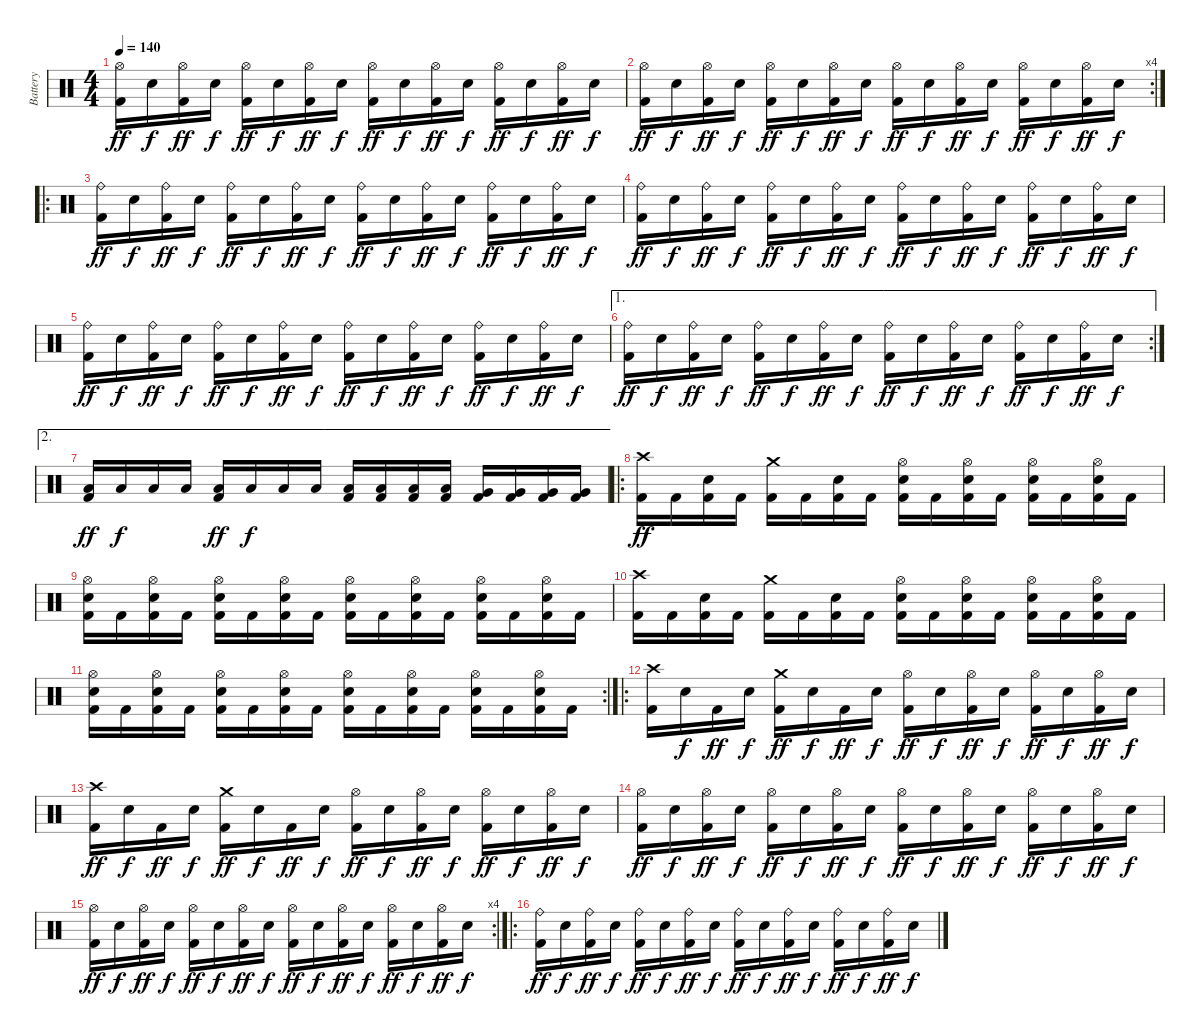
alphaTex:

\track ("Battery" "Battery") {instrument percussion}
\staff {score}
\articulation defaults
\ts (4 4)
\tempo 140
\clef neutral
\ks c
("Hi-Hat (open)" "Kick (hit) 2").16{dy ff} "Snare (hit) 2".16{dy f} ("Hi-Hat (open)" "Kick (hit) 2").16{dy ff} "Snare (hit) 2".16{dy f} ("Hi-Hat (open)" "Kick (hit) 2").16{dy ff} "Snare (hit) 2".16{dy f} ("Hi-Hat (open)" "Kick (hit) 2").16{dy ff} "Snare (hit) 2".16{dy f} ("Hi-Hat (open)" "Kick (hit) 2").16{dy ff} "Snare (hit) 2".16{dy f} ("Hi-Hat (open)" "Kick (hit) 2").16{dy ff} "Snare (hit) 2".16{dy f} ("Hi-Hat (open)" "Kick (hit) 2").16{dy ff} "Snare (hit) 2".16{dy f} ("Hi-Hat (open)" "Kick (hit) 2").16{dy ff} "Snare (hit) 2".16{dy f} |
\rc 4
("Hi-Hat (open)" "Kick (hit) 2").16{dy ff} "Snare (hit) 2".16{dy f} ("Hi-Hat (open)" "Kick (hit) 2").16{dy ff} "Snare (hit) 2".16{dy f} ("Hi-Hat (open)" "Kick (hit) 2").16{dy ff} "Snare (hit) 2".16{dy f} ("Hi-Hat (open)" "Kick (hit) 2").16{dy ff} "Snare (hit) 2".16{dy f} ("Hi-Hat (open)" "Kick (hit) 2").16{dy ff} "Snare (hit) 2".16{dy f} ("Hi-Hat (open)" "Kick (hit) 2").16{dy ff} "Snare (hit) 2".16{dy f} ("Hi-Hat (open)" "Kick (hit) 2").16{dy ff} "Snare (hit) 2".16{dy f} ("Hi-Hat (open)" "Kick (hit) 2").16{dy ff} "Snare (hit) 2".16{dy f} |
\ro
("Ride (bell)" "Kick (hit) 2").16{dy ff} "Snare (hit) 2".16{dy f} ("Ride (bell)" "Kick (hit) 2").16{dy ff} "Snare (hit) 2".16{dy f} ("Ride (bell)" "Kick (hit) 2").16{dy ff} "Snare (hit) 2".16{dy f} ("Ride (bell)" "Kick (hit) 2").16{dy ff} "Snare (hit) 2".16{dy f} ("Ride (bell)" "Kick (hit) 2").16{dy ff} "Snare (hit) 2".16{dy f} ("Ride (bell)" "Kick (hit) 2").16{dy ff} "Snare (hit) 2".16{dy f} ("Ride (bell)" "Kick (hit) 2").16{dy ff} "Snare (hit) 2".16{dy f} ("Ride (bell)" "Kick (hit) 2").16{dy ff} "Snare (hit) 2".16{dy f} |
("Ride (bell)" "Kick (hit) 2").16{dy ff} "Snare (hit) 2".16{dy f} ("Ride (bell)" "Kick (hit) 2").16{dy ff} "Snare (hit) 2".16{dy f} ("Ride (bell)" "Kick (hit) 2").16{dy ff} "Snare (hit) 2".16{dy f} ("Ride (bell)" "Kick (hit) 2").16{dy ff} "Snare (hit) 2".16{dy f} ("Ride (bell)" "Kick (hit) 2").16{dy ff} "Snare (hit) 2".16{dy f} ("Ride (bell)" "Kick (hit) 2").16{dy ff} "Snare (hit) 2".16{dy f} ("Ride (bell)" "Kick (hit) 2").16{dy ff} "Snare (hit) 2".16{dy f} ("Ride (bell)" "Kick (hit) 2").16{dy ff} "Snare (hit) 2".16{dy f} |
("Ride (bell)" "Kick (hit) 2").16{dy ff} "Snare (hit) 2".16{dy f} ("Ride (bell)" "Kick (hit) 2").16{dy ff} "Snare (hit) 2".16{dy f} ("Ride (bell)" "Kick (hit) 2").16{dy ff} "Snare (hit) 2".16{dy f} ("Ride (bell)" "Kick (hit) 2").16{dy ff} "Snare (hit) 2".16{dy f} ("Ride (bell)" "Kick (hit) 2").16{dy ff} "Snare (hit) 2".16{dy f} ("Ride (bell)" "Kick (hit) 2").16{dy ff} "Snare (hit) 2".16{dy f} ("Ride (bell)" "Kick (hit) 2").16{dy ff} "Snare (hit) 2".16{dy f} ("Ride (bell)" "Kick (hit) 2").16{dy ff} "Snare (hit) 2".16{dy f} |
\ae 1
\rc 2
("Ride (bell)" "Kick (hit) 2").16{dy ff} "Snare (hit) 2".16{dy f} ("Ride (bell)" "Kick (hit) 2").16{dy ff} "Snare (hit) 2".16{dy f} ("Ride (bell)" "Kick (hit) 2").16{dy ff} "Snare (hit) 2".16{dy f} ("Ride (bell)" "Kick (hit) 2").16{dy ff} "Snare (hit) 2".16{dy f} ("Ride (bell)" "Kick (hit) 2").16{dy ff} "Snare (hit) 2".16{dy f} ("Ride (bell)" "Kick (hit) 2").16{dy ff} "Snare (hit) 2".16{dy f} ("Ride (bell)" "Kick (hit) 2").16{dy ff} "Snare (hit) 2".16{dy f} ("Ride (bell)" "Kick (hit) 2").16{dy ff} "Snare (hit) 2".16{dy f} |
\ae 2
("Low Tom (hit)" "Kick (hit) 2").16{dy ff} "Low Tom (hit)".16{dy f} "Low Tom (hit)".16 "Low Tom (hit)".16 ("Low Tom (hit)" "Kick (hit) 2").16{dy ff} "Low Tom (hit)".16{dy f} "Low Tom (hit)".16 "Low Tom (hit)".16 ("Low Tom (hit)" "Kick (hit) 2").16 ("Low Tom (hit)" "Kick (hit) 2").16 ("Low Tom (hit)" "Kick (hit) 2").16 ("Low Tom (hit)" "Kick (hit) 2").16 ("Very Low Tom (hit)" "Kick (hit) 2").16 ("Very Low Tom (hit)" "Kick (hit) 2").16 ("Very Low Tom (hit)" "Kick (hit) 2").16 ("Very Low Tom (hit)" "Kick (hit) 2").16 |
\ro
("Crash high (hit)" "Kick (hit) 2").16{dy ff} "Kick (hit) 2".16 ("Snare (hit) 2" "Kick (hit) 2").16 "Kick (hit) 2".16 ("Crash medium (hit)" "Kick (hit) 2").16 "Kick (hit) 2".16 ("Snare (hit) 2" "Kick (hit) 2").16 "Kick (hit) 2".16 ("Hi-Hat (open)" "Snare (hit) 2" "Kick (hit) 2").16 "Kick (hit) 2".16 ("Hi-Hat (open)" "Snare (hit) 2" "Kick (hit) 2").16 "Kick (hit) 2".16 ("Hi-Hat (open)" "Snare (hit) 2" "Kick (hit) 2").16 "Kick (hit) 2".16 ("Hi-Hat (open)" "Snare (hit) 2" "Kick (hit) 2").16 "Kick (hit) 2".16 |
("Hi-Hat (open)" "Snare (hit) 2" "Kick (hit) 2").16 "Kick (hit) 2".16 ("Hi-Hat (open)" "Snare (hit) 2" "Kick (hit) 2").16 "Kick (hit) 2".16 ("Hi-Hat (open)" "Snare (hit) 2" "Kick (hit) 2").16 "Kick (hit) 2".16 ("Hi-Hat (open)" "Snare (hit) 2" "Kick (hit) 2").16 "Kick (hit) 2".16 ("Hi-Hat (open)" "Snare (hit) 2" "Kick (hit) 2").16 "Kick (hit) 2".16 ("Hi-Hat (open)" "Snare (hit) 2" "Kick (hit) 2").16 "Kick (hit) 2".16 ("Hi-Hat (open)" "Snare (hit) 2" "Kick (hit) 2").16 "Kick (hit) 2".16 ("Hi-Hat (open)" "Snare (hit) 2" "Kick (hit) 2").16 "Kick (hit) 2".16 |
("Crash high (hit)" "Kick (hit) 2").16 "Kick (hit) 2".16 ("Snare (hit) 2" "Kick (hit) 2").16 "Kick (hit) 2".16 ("Crash medium (hit)" "Kick (hit) 2").16 "Kick (hit) 2".16 ("Snare (hit) 2" "Kick (hit) 2").16 "Kick (hit) 2".16 ("Hi-Hat (open)" "Snare (hit) 2" "Kick (hit) 2").16 "Kick (hit) 2".16 ("Hi-Hat (open)" "Snare (hit) 2" "Kick (hit) 2").16 "Kick (hit) 2".16 ("Hi-Hat (open)" "Snare (hit) 2" "Kick (hit) 2").16 "Kick (hit) 2".16 ("Hi-Hat (open)" "Snare (hit) 2" "Kick (hit) 2").16 "Kick (hit) 2".16 |
\rc 2
("Hi-Hat (open)" "Snare (hit) 2" "Kick (hit) 2").16 "Kick (hit) 2".16 ("Hi-Hat (open)" "Snare (hit) 2" "Kick (hit) 2").16 "Kick (hit) 2".16 ("Hi-Hat (open)" "Snare (hit) 2" "Kick (hit) 2").16 "Kick (hit) 2".16 ("Hi-Hat (open)" "Snare (hit) 2" "Kick (hit) 2").16 "Kick (hit) 2".16 ("Hi-Hat (open)" "Snare (hit) 2" "Kick (hit) 2").16 "Kick (hit) 2".16 ("Hi-Hat (open)" "Snare (hit) 2" "Kick (hit) 2").16 "Kick (hit) 2".16 ("Hi-Hat (open)" "Snare (hit) 2" "Kick (hit) 2").16 "Kick (hit) 2".16 ("Hi-Hat (open)" "Snare (hit) 2" "Kick (hit) 2").16 "Kick (hit) 2".16 |
\ro
("Crash high (hit)" "Kick (hit) 2").16 "Snare (hit) 2".16{dy f} "Kick (hit) 2".16{dy ff} "Snare (hit) 2".16{dy f} ("Crash medium (hit)" "Kick (hit) 2").16{dy ff} "Snare (hit) 2".16{dy f} "Kick (hit) 2".16{dy ff} "Snare (hit) 2".16{dy f} ("Hi-Hat (open)" "Kick (hit) 2").16{dy ff} "Snare (hit) 2".16{dy f} ("Hi-Hat (open)" "Kick (hit) 2").16{dy ff} "Snare (hit) 2".16{dy f} ("Hi-Hat (open)" "Kick (hit) 2").16{dy ff} "Snare (hit) 2".16{dy f} ("Hi-Hat (open)" "Kick (hit) 2").16{dy ff} "Snare (hit) 2".16{dy f} |
("Crash high (hit)" "Kick (hit) 2").16{dy ff} "Snare (hit) 2".16{dy f} "Kick (hit) 2".16{dy ff} "Snare (hit) 2".16{dy f} ("Crash medium (hit)" "Kick (hit) 2").16{dy ff} "Snare (hit) 2".16{dy f} "Kick (hit) 2".16{dy ff} "Snare (hit) 2".16{dy f} ("Hi-Hat (open)" "Kick (hit) 2").16{dy ff} "Snare (hit) 2".16{dy f} ("Hi-Hat (open)" "Kick (hit) 2").16{dy ff} "Snare (hit) 2".16{dy f} ("Hi-Hat (open)" "Kick (hit) 2").16{dy ff} "Snare (hit) 2".16{dy f} ("Hi-Hat (open)" "Kick (hit) 2").16{dy ff} "Snare (hit) 2".16{dy f} |
("Hi-Hat (open)" "Kick (hit) 2").16{dy ff} "Snare (hit) 2".16{dy f} ("Hi-Hat (open)" "Kick (hit) 2").16{dy ff} "Snare (hit) 2".16{dy f} ("Hi-Hat (open)" "Kick (hit) 2").16{dy ff} "Snare (hit) 2".16{dy f} ("Hi-Hat (open)" "Kick (hit) 2").16{dy ff} "Snare (hit) 2".16{dy f} ("Hi-Hat (open)" "Kick (hit) 2").16{dy ff} "Snare (hit) 2".16{dy f} ("Hi-Hat (open)" "Kick (hit) 2").16{dy ff} "Snare (hit) 2".16{dy f} ("Hi-Hat (open)" "Kick (hit) 2").16{dy ff} "Snare (hit) 2".16{dy f} ("Hi-Hat (open)" "Kick (hit) 2").16{dy ff} "Snare (hit) 2".16{dy f} |
\rc 4
("Hi-Hat (open)" "Kick (hit) 2").16{dy ff} "Snare (hit) 2".16{dy f} ("Hi-Hat (open)" "Kick (hit) 2").16{dy ff} "Snare (hit) 2".16{dy f} ("Hi-Hat (open)" "Kick (hit) 2").16{dy ff} "Snare (hit) 2".16{dy f} ("Hi-Hat (open)" "Kick (hit) 2").16{dy ff} "Snare (hit) 2".16{dy f} ("Hi-Hat (open)" "Kick (hit) 2").16{dy ff} "Snare (hit) 2".16{dy f} ("Hi-Hat (open)" "Kick (hit) 2").16{dy ff} "Snare (hit) 2".16{dy f} ("Hi-Hat (open)" "Kick (hit) 2").16{dy ff} "Snare (hit) 2".16{dy f} ("Hi-Hat (open)" "Kick (hit) 2").16{dy ff} "Snare (hit) 2".16{dy f} |
\ro
("Ride (bell)" "Kick (hit) 2").16{dy ff} "Snare (hit) 2".16{dy f} ("Ride (bell)" "Kick (hit) 2").16{dy ff} "Snare (hit) 2".16{dy f} ("Ride (bell)" "Kick (hit) 2").16{dy ff} "Snare (hit) 2".16{dy f} ("Ride (bell)" "Kick (hit) 2").16{dy ff} "Snare (hit) 2".16{dy f} ("Ride (bell)" "Kick (hit) 2").16{dy ff} "Snare (hit) 2".16{dy f} ("Ride (bell)" "Kick (hit) 2").16{dy ff} "Snare (hit) 2".16{dy f} ("Ride (bell)" "Kick (hit) 2").16{dy ff} "Snare (hit) 2".16{dy f} ("Ride (bell)" "Kick (hit) 2").16{dy ff} "Snare (hit) 2".16{dy f}
